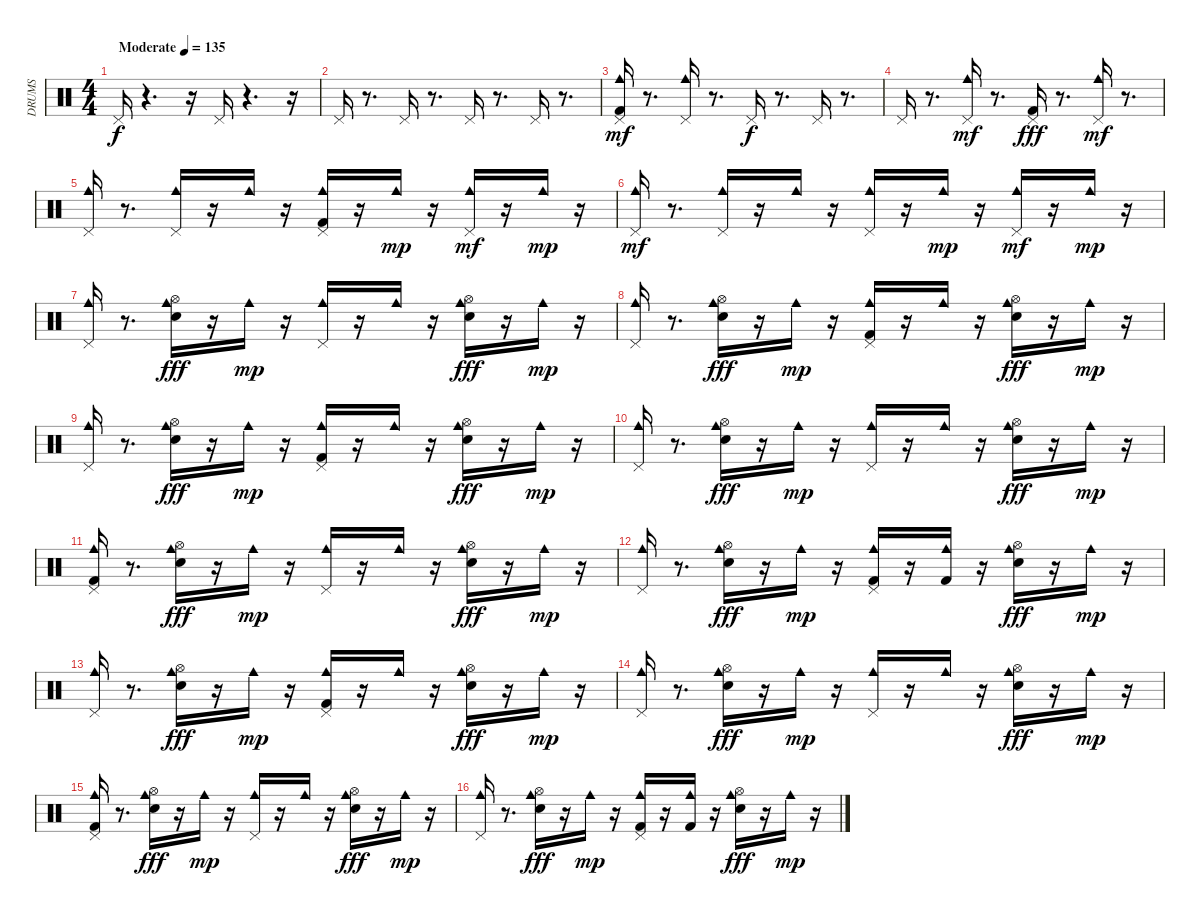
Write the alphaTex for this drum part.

\track ("DRUMS" "DRUMS") {instrument percussion}
\staff {score}
\articulation defaults
\ts (4 4)
\tempo (135 "Moderate")
\clef neutral
\ks c "Pedal Hi-Hat (hit)".16{dy f}
r.4{d} r.16 "Pedal Hi-Hat (hit)".16 r.4{d} r.16 |
"Pedal Hi-Hat (hit)".16 r.8{d} "Pedal Hi-Hat (hit)".16 r.8{d} "Pedal Hi-Hat (hit)".16 r.8{d} "Pedal Hi-Hat (hit)".16 r.8{d} |
("Kick (hit) 2" "Pedal Hi-Hat (hit)" "Cowbell medium (hit)").16{dy mf} r.8{d} ("Pedal Hi-Hat (hit)" "Cowbell medium (hit)").16 r.8{d} "Pedal Hi-Hat (hit)".16{dy f} r.8{d} "Pedal Hi-Hat (hit)".16 r.8{d} |
"Pedal Hi-Hat (hit)".16 r.8{d} ("Pedal Hi-Hat (hit)" "Cowbell medium (hit)").16{dy mf} r.8{d} ("Kick (hit) 2" "Pedal Hi-Hat (hit)").16{dy fff} r.8{d} ("Pedal Hi-Hat (hit)" "Cowbell medium (hit)").16{dy mf} r.8{d} |
("Pedal Hi-Hat (hit)" "Cowbell medium (hit)").16 r.8{d} ("Pedal Hi-Hat (hit)" "Cowbell medium (hit)").16 r.16 "Cowbell medium (hit)".16 r.16 ("Kick (hit) 2" "Pedal Hi-Hat (hit)" "Cowbell medium (hit)").16 r.16 "Cowbell medium (hit)".16{dy mp} r.16 ("Pedal Hi-Hat (hit)" "Cowbell medium (hit)").16{dy mf} r.16 "Cowbell medium (hit)".16{dy mp} r.16 |
("Pedal Hi-Hat (hit)" "Cowbell medium (hit)").16{dy mf} r.8{d} ("Pedal Hi-Hat (hit)" "Cowbell medium (hit)").16 r.16 "Cowbell medium (hit)".16 r.16 ("Pedal Hi-Hat (hit)" "Cowbell medium (hit)").16 r.16 "Cowbell medium (hit)".16{dy mp} r.16 ("Pedal Hi-Hat (hit)" "Cowbell medium (hit)").16{dy mf} r.16 "Cowbell medium (hit)".16{dy mp} r.16 |
("Pedal Hi-Hat (hit)" "Cowbell medium (hit)").16 r.8{d} ("Snare (hit) 2" "Hi-Hat (open)" "Cowbell medium (hit)").16{dy fff} r.16 "Cowbell medium (hit)".16{dy mp} r.16 ("Pedal Hi-Hat (hit)" "Cowbell medium (hit)").16 r.16 "Cowbell medium (hit)".16 r.16 ("Snare (hit) 2" "Hi-Hat (open)" "Cowbell medium (hit)").16{dy fff} r.16 "Cowbell medium (hit)".16{dy mp} r.16 |
("Pedal Hi-Hat (hit)" "Cowbell medium (hit)").16 r.8{d} ("Snare (hit) 2" "Hi-Hat (open)" "Cowbell medium (hit)").16{dy fff} r.16 "Cowbell medium (hit)".16{dy mp} r.16 ("Kick (hit) 2" "Pedal Hi-Hat (hit)" "Cowbell medium (hit)").16 r.16 "Cowbell medium (hit)".16 r.16 ("Snare (hit) 2" "Hi-Hat (open)" "Cowbell medium (hit)").16{dy fff} r.16 "Cowbell medium (hit)".16{dy mp} r.16 |
("Pedal Hi-Hat (hit)" "Cowbell medium (hit)").16 r.8{d} ("Snare (hit) 2" "Hi-Hat (open)" "Cowbell medium (hit)").16{dy fff} r.16 "Cowbell medium (hit)".16{dy mp} r.16 ("Kick (hit) 2" "Pedal Hi-Hat (hit)" "Cowbell medium (hit)").16 r.16 "Cowbell medium (hit)".16 r.16 ("Snare (hit) 2" "Hi-Hat (open)" "Cowbell medium (hit)").16{dy fff} r.16 "Cowbell medium (hit)".16{dy mp} r.16 |
("Pedal Hi-Hat (hit)" "Cowbell medium (hit)").16 r.8{d} ("Snare (hit) 2" "Hi-Hat (open)" "Cowbell medium (hit)").16{dy fff} r.16 "Cowbell medium (hit)".16{dy mp} r.16 ("Pedal Hi-Hat (hit)" "Cowbell medium (hit)").16 r.16 "Cowbell medium (hit)".16 r.16 ("Snare (hit) 2" "Hi-Hat (open)" "Cowbell medium (hit)").16{dy fff} r.16 "Cowbell medium (hit)".16{dy mp} r.16 |
("Kick (hit) 2" "Pedal Hi-Hat (hit)" "Cowbell medium (hit)").16 r.8{d} ("Snare (hit) 2" "Hi-Hat (open)" "Cowbell medium (hit)").16{dy fff} r.16 "Cowbell medium (hit)".16{dy mp} r.16 ("Pedal Hi-Hat (hit)" "Cowbell medium (hit)").16 r.16 "Cowbell medium (hit)".16 r.16 ("Snare (hit) 2" "Hi-Hat (open)" "Cowbell medium (hit)").16{dy fff} r.16 "Cowbell medium (hit)".16{dy mp} r.16 |
("Pedal Hi-Hat (hit)" "Cowbell medium (hit)").16 r.8{d} ("Snare (hit) 2" "Hi-Hat (open)" "Cowbell medium (hit)").16{dy fff} r.16 "Cowbell medium (hit)".16{dy mp} r.16 ("Kick (hit) 2" "Pedal Hi-Hat (hit)" "Cowbell medium (hit)").16 r.16 ("Kick (hit) 2" "Cowbell medium (hit)").16 r.16 ("Snare (hit) 2" "Hi-Hat (open)" "Cowbell medium (hit)").16{dy fff} r.16 "Cowbell medium (hit)".16{dy mp} r.16 |
("Pedal Hi-Hat (hit)" "Cowbell medium (hit)").16 r.8{d} ("Snare (hit) 2" "Hi-Hat (open)" "Cowbell medium (hit)").16{dy fff} r.16 "Cowbell medium (hit)".16{dy mp} r.16 ("Kick (hit) 2" "Pedal Hi-Hat (hit)" "Cowbell medium (hit)").16 r.16 "Cowbell medium (hit)".16 r.16 ("Snare (hit) 2" "Hi-Hat (open)" "Cowbell medium (hit)").16{dy fff} r.16 "Cowbell medium (hit)".16{dy mp} r.16 |
("Pedal Hi-Hat (hit)" "Cowbell medium (hit)").16 r.8{d} ("Snare (hit) 2" "Hi-Hat (open)" "Cowbell medium (hit)").16{dy fff} r.16 "Cowbell medium (hit)".16{dy mp} r.16 ("Pedal Hi-Hat (hit)" "Cowbell medium (hit)").16 r.16 "Cowbell medium (hit)".16 r.16 ("Snare (hit) 2" "Hi-Hat (open)" "Cowbell medium (hit)").16{dy fff} r.16 "Cowbell medium (hit)".16{dy mp} r.16 |
("Kick (hit) 2" "Pedal Hi-Hat (hit)" "Cowbell medium (hit)").16 r.8{d} ("Snare (hit) 2" "Hi-Hat (open)" "Cowbell medium (hit)").16{dy fff} r.16 "Cowbell medium (hit)".16{dy mp} r.16 ("Pedal Hi-Hat (hit)" "Cowbell medium (hit)").16 r.16 "Cowbell medium (hit)".16 r.16 ("Snare (hit) 2" "Hi-Hat (open)" "Cowbell medium (hit)").16{dy fff} r.16 "Cowbell medium (hit)".16{dy mp} r.16 |
("Pedal Hi-Hat (hit)" "Cowbell medium (hit)").16 r.8{d} ("Snare (hit) 2" "Hi-Hat (open)" "Cowbell medium (hit)").16{dy fff} r.16 "Cowbell medium (hit)".16{dy mp} r.16 ("Kick (hit) 2" "Pedal Hi-Hat (hit)" "Cowbell medium (hit)").16 r.16 ("Kick (hit) 2" "Cowbell medium (hit)").16 r.16 ("Snare (hit) 2" "Hi-Hat (open)" "Cowbell medium (hit)").16{dy fff} r.16 "Cowbell medium (hit)".16{dy mp} r.16
